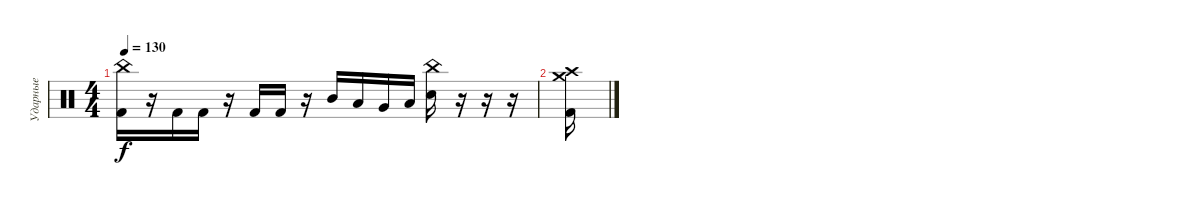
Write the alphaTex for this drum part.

\track ("Ударные" "Ударные") {instrument percussion}
\staff {score}
\articulation defaults
\ts (4 4)
\tempo 130
\clef neutral
\ks c
("China (hit)" "Kick (hit) 2").16{dy f} r.16 "Kick (hit) 2".16 "Kick (hit) 2".16 r.16 "Kick (hit) 2".16 "Kick (hit) 2".16 r.16 "Mid Tom (hit)".16 "Low Tom (hit)".16 "Very Low Tom (hit)".16 "Low Floor Tom (hit)".16 ("China (hit)" "Electric Snare (hit)").16 r.16 r.16 r.16 |
("Crash high (hit)" "Crash medium (hit)" "Kick (hit) 2").16
